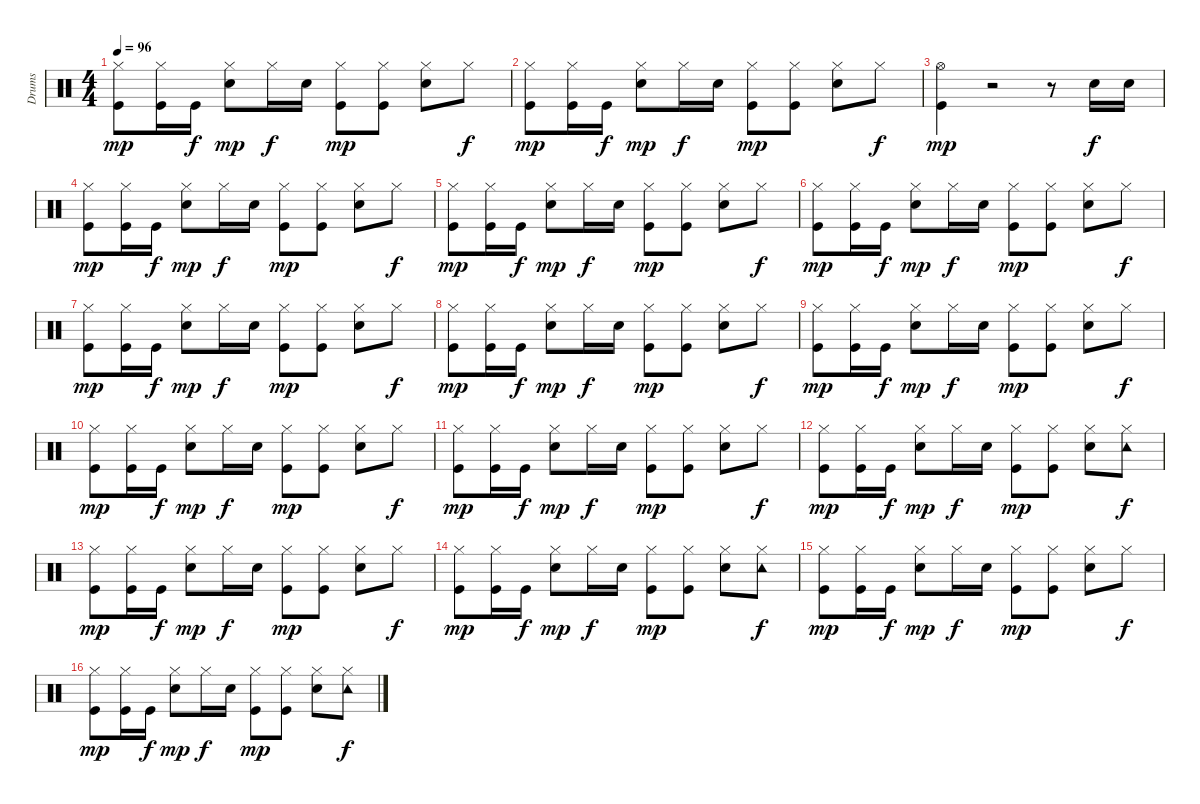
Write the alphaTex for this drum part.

\track ("Drums" "Drums") {instrument percussion}
\staff {score}
\articulation defaults
\ts (4 4)
\tempo 96
\clef neutral
\ks c
("Hi-Hat (closed)" "Kick (hit)").8{dy mp} ("Hi-Hat (closed)" "Kick (hit)").16 "Kick (hit)".16{dy f} ("Hi-Hat (closed)" "Electric Snare (hit)").8{dy mp} "Hi-Hat (closed)".16{dy f} "Electric Snare (hit)".16 ("Hi-Hat (closed)" "Kick (hit)").8{dy mp} ("Hi-Hat (closed)" "Kick (hit)").8 ("Hi-Hat (closed)" "Electric Snare (hit)").8 "Hi-Hat (closed)".8{dy f} |
("Hi-Hat (closed)" "Kick (hit)").8{dy mp} ("Hi-Hat (closed)" "Kick (hit)").16 "Kick (hit)".16{dy f} ("Hi-Hat (closed)" "Electric Snare (hit)").8{dy mp} "Hi-Hat (closed)".16{dy f} "Electric Snare (hit)".16 ("Hi-Hat (closed)" "Kick (hit)").8{dy mp} ("Hi-Hat (closed)" "Kick (hit)").8 ("Hi-Hat (closed)" "Electric Snare (hit)").8 "Hi-Hat (closed)".8{dy f} |
("Hi-Hat (open)" "Kick (hit)").4{dy mp} r.2 r.8 "Electric Snare (hit)".16{dy f} "Electric Snare (hit)".16 |
("Hi-Hat (closed)" "Kick (hit)").8{dy mp} ("Hi-Hat (closed)" "Kick (hit)").16 "Kick (hit)".16{dy f} ("Hi-Hat (closed)" "Electric Snare (hit)").8{dy mp} "Hi-Hat (closed)".16{dy f} "Electric Snare (hit)".16 ("Hi-Hat (closed)" "Kick (hit)").8{dy mp} ("Hi-Hat (closed)" "Kick (hit)").8 ("Hi-Hat (closed)" "Electric Snare (hit)").8 "Hi-Hat (closed)".8{dy f} |
("Hi-Hat (closed)" "Kick (hit)").8{dy mp} ("Hi-Hat (closed)" "Kick (hit)").16 "Kick (hit)".16{dy f} ("Hi-Hat (closed)" "Electric Snare (hit)").8{dy mp} "Hi-Hat (closed)".16{dy f} "Electric Snare (hit)".16 ("Hi-Hat (closed)" "Kick (hit)").8{dy mp} ("Hi-Hat (closed)" "Kick (hit)").8 ("Hi-Hat (closed)" "Electric Snare (hit)").8 "Hi-Hat (closed)".8{dy f} |
("Hi-Hat (closed)" "Kick (hit)").8{dy mp} ("Hi-Hat (closed)" "Kick (hit)").16 "Kick (hit)".16{dy f} ("Hi-Hat (closed)" "Electric Snare (hit)").8{dy mp} "Hi-Hat (closed)".16{dy f} "Electric Snare (hit)".16 ("Hi-Hat (closed)" "Kick (hit)").8{dy mp} ("Hi-Hat (closed)" "Kick (hit)").8 ("Hi-Hat (closed)" "Electric Snare (hit)").8 "Hi-Hat (closed)".8{dy f} |
("Hi-Hat (closed)" "Kick (hit)").8{dy mp} ("Hi-Hat (closed)" "Kick (hit)").16 "Kick (hit)".16{dy f} ("Hi-Hat (closed)" "Electric Snare (hit)").8{dy mp} "Hi-Hat (closed)".16{dy f} "Electric Snare (hit)".16 ("Hi-Hat (closed)" "Kick (hit)").8{dy mp} ("Hi-Hat (closed)" "Kick (hit)").8 ("Hi-Hat (closed)" "Electric Snare (hit)").8 "Hi-Hat (closed)".8{dy f} |
("Hi-Hat (closed)" "Kick (hit)").8{dy mp} ("Hi-Hat (closed)" "Kick (hit)").16 "Kick (hit)".16{dy f} ("Hi-Hat (closed)" "Electric Snare (hit)").8{dy mp} "Hi-Hat (closed)".16{dy f} "Electric Snare (hit)".16 ("Hi-Hat (closed)" "Kick (hit)").8{dy mp} ("Hi-Hat (closed)" "Kick (hit)").8 ("Hi-Hat (closed)" "Electric Snare (hit)").8 "Hi-Hat (closed)".8{dy f} |
("Hi-Hat (closed)" "Kick (hit)").8{dy mp} ("Hi-Hat (closed)" "Kick (hit)").16 "Kick (hit)".16{dy f} ("Hi-Hat (closed)" "Electric Snare (hit)").8{dy mp} "Hi-Hat (closed)".16{dy f} "Electric Snare (hit)".16 ("Hi-Hat (closed)" "Kick (hit)").8{dy mp} ("Hi-Hat (closed)" "Kick (hit)").8 ("Hi-Hat (closed)" "Electric Snare (hit)").8 "Hi-Hat (closed)".8{dy f} |
("Hi-Hat (closed)" "Kick (hit)").8{dy mp} ("Hi-Hat (closed)" "Kick (hit)").16 "Kick (hit)".16{dy f} ("Hi-Hat (closed)" "Electric Snare (hit)").8{dy mp} "Hi-Hat (closed)".16{dy f} "Electric Snare (hit)".16 ("Hi-Hat (closed)" "Kick (hit)").8{dy mp} ("Hi-Hat (closed)" "Kick (hit)").8 ("Hi-Hat (closed)" "Electric Snare (hit)").8 "Hi-Hat (closed)".8{dy f} |
("Hi-Hat (closed)" "Kick (hit)").8{dy mp} ("Hi-Hat (closed)" "Kick (hit)").16 "Kick (hit)".16{dy f} ("Hi-Hat (closed)" "Electric Snare (hit)").8{dy mp} "Hi-Hat (closed)".16{dy f} "Electric Snare (hit)".16 ("Hi-Hat (closed)" "Kick (hit)").8{dy mp} ("Hi-Hat (closed)" "Kick (hit)").8 ("Hi-Hat (closed)" "Electric Snare (hit)").8 "Hi-Hat (closed)".8{dy f} |
("Hi-Hat (closed)" "Kick (hit)").8{dy mp} ("Hi-Hat (closed)" "Kick (hit)").16 "Kick (hit)".16{dy f} ("Hi-Hat (closed)" "Electric Snare (hit)").8{dy mp} "Hi-Hat (closed)".16{dy f} "Electric Snare (hit)".16 ("Hi-Hat (closed)" "Kick (hit)").8{dy mp} ("Hi-Hat (closed)" "Kick (hit)").8 ("Hi-Hat (closed)" "Electric Snare (hit)").8 ("Tambourine (hit)" "Hi-Hat (closed)").8{dy f} |
("Hi-Hat (closed)" "Kick (hit)").8{dy mp} ("Hi-Hat (closed)" "Kick (hit)").16 "Kick (hit)".16{dy f} ("Hi-Hat (closed)" "Electric Snare (hit)").8{dy mp} "Hi-Hat (closed)".16{dy f} "Electric Snare (hit)".16 ("Hi-Hat (closed)" "Kick (hit)").8{dy mp} ("Hi-Hat (closed)" "Kick (hit)").8 ("Hi-Hat (closed)" "Electric Snare (hit)").8 "Hi-Hat (closed)".8{dy f} |
("Hi-Hat (closed)" "Kick (hit)").8{dy mp} ("Hi-Hat (closed)" "Kick (hit)").16 "Kick (hit)".16{dy f} ("Hi-Hat (closed)" "Electric Snare (hit)").8{dy mp} "Hi-Hat (closed)".16{dy f} "Electric Snare (hit)".16 ("Hi-Hat (closed)" "Kick (hit)").8{dy mp} ("Hi-Hat (closed)" "Kick (hit)").8 ("Hi-Hat (closed)" "Electric Snare (hit)").8 ("Tambourine (hit)" "Hi-Hat (closed)").8{dy f} |
("Hi-Hat (closed)" "Kick (hit)").8{dy mp} ("Hi-Hat (closed)" "Kick (hit)").16 "Kick (hit)".16{dy f} ("Hi-Hat (closed)" "Electric Snare (hit)").8{dy mp} "Hi-Hat (closed)".16{dy f} "Electric Snare (hit)".16 ("Hi-Hat (closed)" "Kick (hit)").8{dy mp} ("Hi-Hat (closed)" "Kick (hit)").8 ("Hi-Hat (closed)" "Electric Snare (hit)").8 "Hi-Hat (closed)".8{dy f} |
("Hi-Hat (closed)" "Kick (hit)").8{dy mp} ("Hi-Hat (closed)" "Kick (hit)").16 "Kick (hit)".16{dy f} ("Hi-Hat (closed)" "Electric Snare (hit)").8{dy mp} "Hi-Hat (closed)".16{dy f} "Electric Snare (hit)".16 ("Hi-Hat (closed)" "Kick (hit)").8{dy mp} ("Hi-Hat (closed)" "Kick (hit)").8 ("Hi-Hat (closed)" "Electric Snare (hit)").8 ("Tambourine (hit)" "Hi-Hat (closed)").8{dy f}
